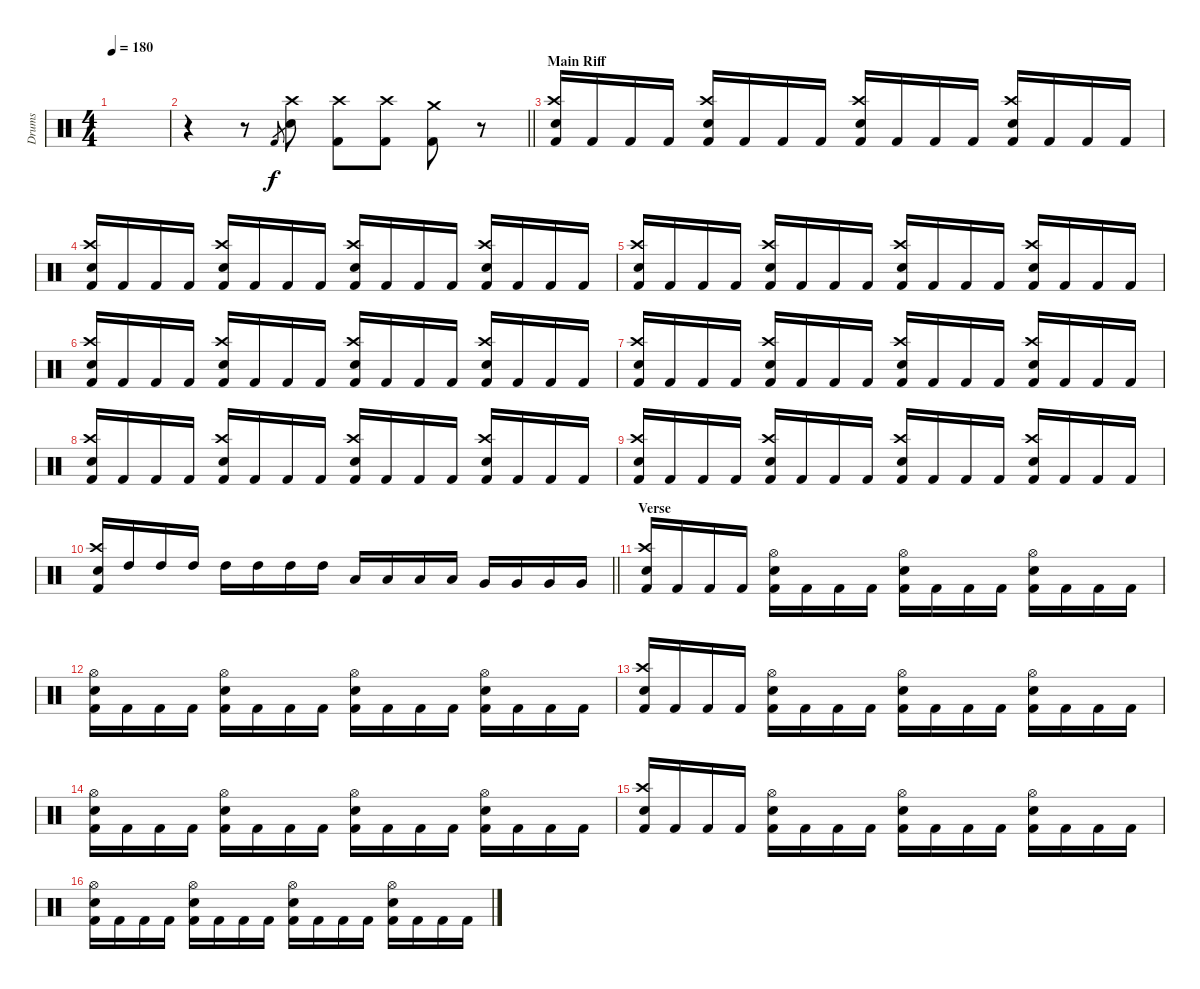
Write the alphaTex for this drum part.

\track ("Drums" "Drums") {instrument percussion}
\staff {score}
\articulation defaults
\ts (4 4)
\tempo 180
\clef neutral
\ks c
|
\barLineRight lightlight
r.4 r.8 "Kick (hit) 2".8{gr} ("Crash high (hit)" "Electric Snare (hit)").8 ("Crash high (hit)" "Kick (hit) 2").8 ("Crash high (hit)" "Kick (hit) 2").8 ("Crash medium (hit)" "Kick (hit) 2").8 r.8 |
\section ("" "Main Riff")
("Crash high (hit)" "Electric Snare (hit)" "Kick (hit) 2").16 "Kick (hit) 2".16 "Kick (hit) 2".16 "Kick (hit) 2".16 ("Crash high (hit)" "Electric Snare (hit)" "Kick (hit) 2").16 "Kick (hit) 2".16 "Kick (hit) 2".16 "Kick (hit) 2".16 ("Crash high (hit)" "Electric Snare (hit)" "Kick (hit) 2").16 "Kick (hit) 2".16 "Kick (hit) 2".16 "Kick (hit) 2".16 ("Crash high (hit)" "Electric Snare (hit)" "Kick (hit) 2").16 "Kick (hit) 2".16 "Kick (hit) 2".16 "Kick (hit) 2".16 |
("Crash high (hit)" "Electric Snare (hit)" "Kick (hit) 2").16 "Kick (hit) 2".16 "Kick (hit) 2".16 "Kick (hit) 2".16 ("Crash high (hit)" "Electric Snare (hit)" "Kick (hit) 2").16 "Kick (hit) 2".16 "Kick (hit) 2".16 "Kick (hit) 2".16 ("Crash high (hit)" "Electric Snare (hit)" "Kick (hit) 2").16 "Kick (hit) 2".16 "Kick (hit) 2".16 "Kick (hit) 2".16 ("Crash high (hit)" "Electric Snare (hit)" "Kick (hit) 2").16 "Kick (hit) 2".16 "Kick (hit) 2".16 "Kick (hit) 2".16 |
("Crash high (hit)" "Electric Snare (hit)" "Kick (hit) 2").16 "Kick (hit) 2".16 "Kick (hit) 2".16 "Kick (hit) 2".16 ("Crash high (hit)" "Electric Snare (hit)" "Kick (hit) 2").16 "Kick (hit) 2".16 "Kick (hit) 2".16 "Kick (hit) 2".16 ("Crash high (hit)" "Electric Snare (hit)" "Kick (hit) 2").16 "Kick (hit) 2".16 "Kick (hit) 2".16 "Kick (hit) 2".16 ("Crash high (hit)" "Electric Snare (hit)" "Kick (hit) 2").16 "Kick (hit) 2".16 "Kick (hit) 2".16 "Kick (hit) 2".16 |
("Crash high (hit)" "Electric Snare (hit)" "Kick (hit) 2").16 "Kick (hit) 2".16 "Kick (hit) 2".16 "Kick (hit) 2".16 ("Crash high (hit)" "Electric Snare (hit)" "Kick (hit) 2").16 "Kick (hit) 2".16 "Kick (hit) 2".16 "Kick (hit) 2".16 ("Crash high (hit)" "Electric Snare (hit)" "Kick (hit) 2").16 "Kick (hit) 2".16 "Kick (hit) 2".16 "Kick (hit) 2".16 ("Crash high (hit)" "Electric Snare (hit)" "Kick (hit) 2").16 "Kick (hit) 2".16 "Kick (hit) 2".16 "Kick (hit) 2".16 |
("Crash high (hit)" "Electric Snare (hit)" "Kick (hit) 2").16 "Kick (hit) 2".16 "Kick (hit) 2".16 "Kick (hit) 2".16 ("Crash high (hit)" "Electric Snare (hit)" "Kick (hit) 2").16 "Kick (hit) 2".16 "Kick (hit) 2".16 "Kick (hit) 2".16 ("Crash high (hit)" "Electric Snare (hit)" "Kick (hit) 2").16 "Kick (hit) 2".16 "Kick (hit) 2".16 "Kick (hit) 2".16 ("Crash high (hit)" "Electric Snare (hit)" "Kick (hit) 2").16 "Kick (hit) 2".16 "Kick (hit) 2".16 "Kick (hit) 2".16 |
("Crash high (hit)" "Electric Snare (hit)" "Kick (hit) 2").16 "Kick (hit) 2".16 "Kick (hit) 2".16 "Kick (hit) 2".16 ("Crash high (hit)" "Electric Snare (hit)" "Kick (hit) 2").16 "Kick (hit) 2".16 "Kick (hit) 2".16 "Kick (hit) 2".16 ("Crash high (hit)" "Electric Snare (hit)" "Kick (hit) 2").16 "Kick (hit) 2".16 "Kick (hit) 2".16 "Kick (hit) 2".16 ("Crash high (hit)" "Electric Snare (hit)" "Kick (hit) 2").16 "Kick (hit) 2".16 "Kick (hit) 2".16 "Kick (hit) 2".16 |
("Crash high (hit)" "Electric Snare (hit)" "Kick (hit) 2").16 "Kick (hit) 2".16 "Kick (hit) 2".16 "Kick (hit) 2".16 ("Crash high (hit)" "Electric Snare (hit)" "Kick (hit) 2").16 "Kick (hit) 2".16 "Kick (hit) 2".16 "Kick (hit) 2".16 ("Crash high (hit)" "Electric Snare (hit)" "Kick (hit) 2").16 "Kick (hit) 2".16 "Kick (hit) 2".16 "Kick (hit) 2".16 ("Crash high (hit)" "Electric Snare (hit)" "Kick (hit) 2").16 "Kick (hit) 2".16 "Kick (hit) 2".16 "Kick (hit) 2".16 |
\barLineRight lightlight
("Crash high (hit)" "Electric Snare (hit)" "Kick (hit) 2").16 "High Tom (hit)".16 "High Tom (hit)".16 "High Tom (hit)".16 "High Tom (hit)".16 "High Tom (hit)".16 "High Tom (hit)".16 "High Tom (hit)".16 "Low Tom (hit)".16 "Low Tom (hit)".16 "Low Tom (hit)".16 "Low Tom (hit)".16 "Very Low Tom (hit)".16 "Very Low Tom (hit)".16 "Very Low Tom (hit)".16 "Very Low Tom (hit)".16 |
\section ("" "Verse")
("Crash high (hit)" "Electric Snare (hit)" "Kick (hit) 2").16 "Kick (hit) 2".16 "Kick (hit) 2".16 "Kick (hit) 2".16 ("Hi-Hat (open)" "Electric Snare (hit)" "Kick (hit) 2").16 "Kick (hit) 2".16 "Kick (hit) 2".16 "Kick (hit) 2".16 ("Hi-Hat (open)" "Electric Snare (hit)" "Kick (hit) 2").16 "Kick (hit) 2".16 "Kick (hit) 2".16 "Kick (hit) 2".16 ("Hi-Hat (open)" "Electric Snare (hit)" "Kick (hit) 2").16 "Kick (hit) 2".16 "Kick (hit) 2".16 "Kick (hit) 2".16 |
("Hi-Hat (open)" "Electric Snare (hit)" "Kick (hit) 2").16 "Kick (hit) 2".16 "Kick (hit) 2".16 "Kick (hit) 2".16 ("Hi-Hat (open)" "Electric Snare (hit)" "Kick (hit) 2").16 "Kick (hit) 2".16 "Kick (hit) 2".16 "Kick (hit) 2".16 ("Hi-Hat (open)" "Electric Snare (hit)" "Kick (hit) 2").16 "Kick (hit) 2".16 "Kick (hit) 2".16 "Kick (hit) 2".16 ("Hi-Hat (open)" "Electric Snare (hit)" "Kick (hit) 2").16 "Kick (hit) 2".16 "Kick (hit) 2".16 "Kick (hit) 2".16 |
("Crash high (hit)" "Electric Snare (hit)" "Kick (hit) 2").16 "Kick (hit) 2".16 "Kick (hit) 2".16 "Kick (hit) 2".16 ("Hi-Hat (open)" "Electric Snare (hit)" "Kick (hit) 2").16 "Kick (hit) 2".16 "Kick (hit) 2".16 "Kick (hit) 2".16 ("Hi-Hat (open)" "Electric Snare (hit)" "Kick (hit) 2").16 "Kick (hit) 2".16 "Kick (hit) 2".16 "Kick (hit) 2".16 ("Hi-Hat (open)" "Electric Snare (hit)" "Kick (hit) 2").16 "Kick (hit) 2".16 "Kick (hit) 2".16 "Kick (hit) 2".16 |
("Hi-Hat (open)" "Electric Snare (hit)" "Kick (hit) 2").16 "Kick (hit) 2".16 "Kick (hit) 2".16 "Kick (hit) 2".16 ("Hi-Hat (open)" "Electric Snare (hit)" "Kick (hit) 2").16 "Kick (hit) 2".16 "Kick (hit) 2".16 "Kick (hit) 2".16 ("Hi-Hat (open)" "Electric Snare (hit)" "Kick (hit) 2").16 "Kick (hit) 2".16 "Kick (hit) 2".16 "Kick (hit) 2".16 ("Hi-Hat (open)" "Electric Snare (hit)" "Kick (hit) 2").16 "Kick (hit) 2".16 "Kick (hit) 2".16 "Kick (hit) 2".16 |
("Crash high (hit)" "Electric Snare (hit)" "Kick (hit) 2").16 "Kick (hit) 2".16 "Kick (hit) 2".16 "Kick (hit) 2".16 ("Hi-Hat (open)" "Electric Snare (hit)" "Kick (hit) 2").16 "Kick (hit) 2".16 "Kick (hit) 2".16 "Kick (hit) 2".16 ("Hi-Hat (open)" "Electric Snare (hit)" "Kick (hit) 2").16 "Kick (hit) 2".16 "Kick (hit) 2".16 "Kick (hit) 2".16 ("Hi-Hat (open)" "Electric Snare (hit)" "Kick (hit) 2").16 "Kick (hit) 2".16 "Kick (hit) 2".16 "Kick (hit) 2".16 |
("Hi-Hat (open)" "Electric Snare (hit)" "Kick (hit) 2").16 "Kick (hit) 2".16 "Kick (hit) 2".16 "Kick (hit) 2".16 ("Hi-Hat (open)" "Electric Snare (hit)" "Kick (hit) 2").16 "Kick (hit) 2".16 "Kick (hit) 2".16 "Kick (hit) 2".16 ("Hi-Hat (open)" "Electric Snare (hit)" "Kick (hit) 2").16 "Kick (hit) 2".16 "Kick (hit) 2".16 "Kick (hit) 2".16 ("Hi-Hat (open)" "Electric Snare (hit)" "Kick (hit) 2").16 "Kick (hit) 2".16 "Kick (hit) 2".16 "Kick (hit) 2".16
